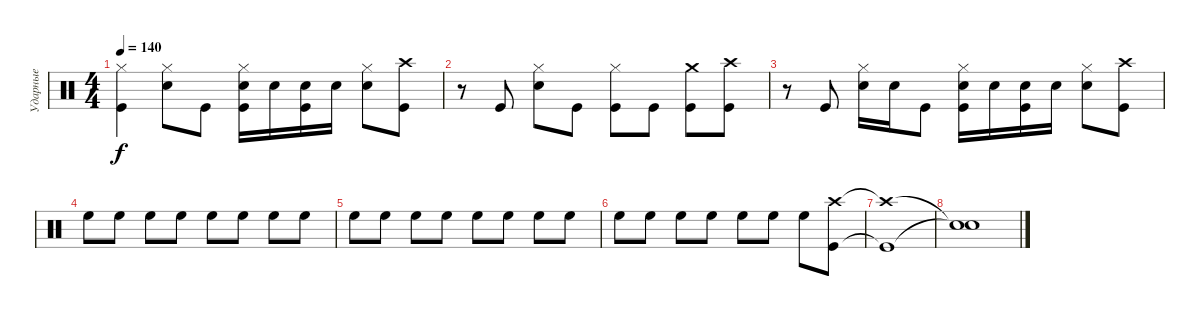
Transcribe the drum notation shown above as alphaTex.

\track ("Ударные" "Ударные") {instrument percussion}
\staff {score}
\articulation defaults
\ts (4 4)
\tempo 140
\clef neutral
\ks c
("Hi-Hat (closed)" "Kick (hit)").4{dy f} ("Hi-Hat (closed)" "Snare (hit) 2").8 "Kick (hit)".8 ("Hi-Hat (closed)" "Snare (hit) 2" "Kick (hit)").16 "Snare (hit) 2".16 ("Snare (hit) 2" "Kick (hit)").16 "Snare (hit) 2".16 ("Hi-Hat (closed)" "Snare (hit) 2").8 ("Crash high (hit)" "Kick (hit)").8 |
r.8 "Kick (hit)".8 ("Hi-Hat (closed)" "Snare (hit) 2").8 "Kick (hit)".8 ("Hi-Hat (closed)" "Kick (hit)").8 "Kick (hit)".8 ("Crash medium (hit)" "Kick (hit)").8 ("Crash high (hit)" "Kick (hit)").8 |
r.8 "Kick (hit)".8 ("Hi-Hat (closed)" "Snare (hit) 2").16 "Snare (hit) 2".16 "Kick (hit)".8 ("Hi-Hat (closed)" "Snare (hit) 2" "Kick (hit)").16 "Snare (hit) 2".16 ("Snare (hit) 2" "Kick (hit)").16 "Snare (hit) 2".16 ("Hi-Hat (closed)" "Snare (hit) 2").8 ("Crash high (hit)" "Kick (hit)").8 |
"High Floor Tom (hit)".8 "High Floor Tom (hit)".8 "High Floor Tom (hit)".8 "High Floor Tom (hit)".8 "High Floor Tom (hit)".8 "High Floor Tom (hit)".8 "High Floor Tom (hit)".8 "High Floor Tom (hit)".8 |
"High Floor Tom (hit)".8 "High Floor Tom (hit)".8 "High Floor Tom (hit)".8 "High Floor Tom (hit)".8 "High Floor Tom (hit)".8 "High Floor Tom (hit)".8 "High Floor Tom (hit)".8 "High Floor Tom (hit)".8 |
"High Floor Tom (hit)".8 "High Floor Tom (hit)".8 "High Floor Tom (hit)".8 "High Floor Tom (hit)".8 "High Floor Tom (hit)".8 "High Floor Tom (hit)".8 "High Floor Tom (hit)".8 ("Crash high (hit)" "Kick (hit)").8 |
("Crash high (hit)"{t} "Kick (hit)"{t}).1 |
("Snare (hit)"{t} "Snare (hit)"{t}).1
